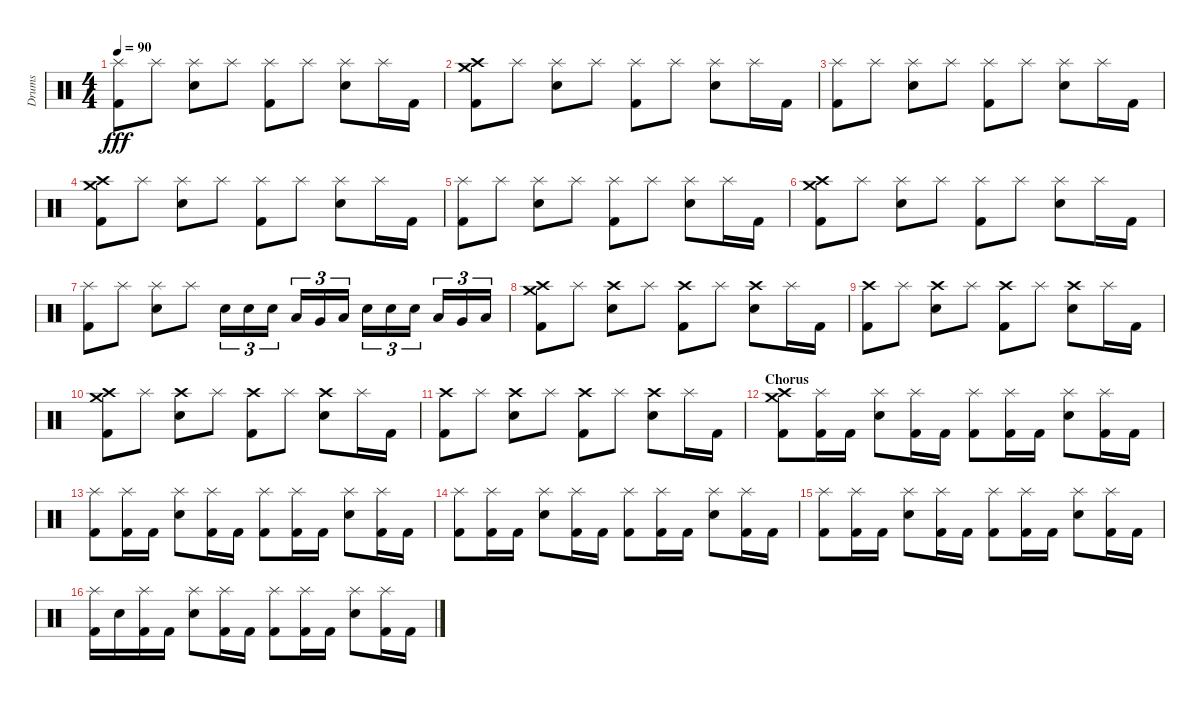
\track ("Drums" "Drums") {instrument percussion}
\staff {score}
\articulation defaults
\ts (4 4)
\tempo 90
\clef neutral
\ks c
("Splash (hit)" "Kick (hit) 2").8{dy fff} "Splash (hit)".8 ("Splash (hit)" "Electric Snare (hit)").8 "Splash (hit)".8 ("Splash (hit)" "Kick (hit) 2").8 "Splash (hit)".8 ("Splash (hit)" "Electric Snare (hit)").8 "Splash (hit)".16 "Kick (hit) 2".16 |
("Crash high (hit)" "Crash medium (hit)" "Kick (hit) 2").8 "Splash (hit)".8 ("Splash (hit)" "Electric Snare (hit)").8 "Splash (hit)".8 ("Splash (hit)" "Kick (hit) 2").8 "Splash (hit)".8 ("Splash (hit)" "Electric Snare (hit)").8 "Splash (hit)".16 "Kick (hit) 2".16 |
("Splash (hit)" "Kick (hit) 2").8 "Splash (hit)".8 ("Splash (hit)" "Electric Snare (hit)").8 "Splash (hit)".8 ("Splash (hit)" "Kick (hit) 2").8 "Splash (hit)".8 ("Splash (hit)" "Electric Snare (hit)").8 "Splash (hit)".16 "Kick (hit) 2".16 |
("Crash high (hit)" "Crash medium (hit)" "Kick (hit) 2").8 "Splash (hit)".8 ("Splash (hit)" "Electric Snare (hit)").8 "Splash (hit)".8 ("Splash (hit)" "Kick (hit) 2").8 "Splash (hit)".8 ("Splash (hit)" "Electric Snare (hit)").8 "Splash (hit)".16 "Kick (hit) 2".16 |
("Splash (hit)" "Kick (hit) 2").8 "Splash (hit)".8 ("Splash (hit)" "Electric Snare (hit)").8 "Splash (hit)".8 ("Splash (hit)" "Kick (hit) 2").8 "Splash (hit)".8 ("Splash (hit)" "Electric Snare (hit)").8 "Splash (hit)".16 "Kick (hit) 2".16 |
("Crash high (hit)" "Crash medium (hit)" "Kick (hit) 2").8 "Splash (hit)".8 ("Splash (hit)" "Electric Snare (hit)").8 "Splash (hit)".8 ("Splash (hit)" "Kick (hit) 2").8 "Splash (hit)".8 ("Splash (hit)" "Electric Snare (hit)").8 "Splash (hit)".16 "Kick (hit) 2".16 |
("Splash (hit)" "Kick (hit) 2").8 "Splash (hit)".8 ("Splash (hit)" "Electric Snare (hit)").8 "Splash (hit)".8 "Electric Snare (hit)".16{tu (3 2)} "Electric Snare (hit)".16{tu (3 2)} "Electric Snare (hit)".16{tu (3 2)} "Low Tom (hit)".16{tu (3 2)} "Very Low Tom (hit)".16{tu (3 2)} "Low Floor Tom (hit)".16{tu (3 2)} "Electric Snare (hit)".16{tu (3 2)} "Electric Snare (hit)".16{tu (3 2)} "Electric Snare (hit)".16{tu (3 2)} "Low Tom (hit)".16{tu (3 2)} "Very Low Tom (hit)".16{tu (3 2)} "Low Floor Tom (hit)".16{tu (3 2)} |
("Crash high (hit)" "Crash medium (hit)" "Kick (hit) 2").8 "Splash (hit)".8 ("Crash high (hit)" "Electric Snare (hit)").8 "Splash (hit)".8 ("Crash high (hit)" "Kick (hit) 2").8 "Splash (hit)".8 ("Crash high (hit)" "Electric Snare (hit)").8 "Splash (hit)".16 "Kick (hit) 2".16 |
("Crash high (hit)" "Kick (hit) 2").8 "Splash (hit)".8 ("Crash high (hit)" "Electric Snare (hit)").8 "Splash (hit)".8 ("Crash high (hit)" "Kick (hit) 2").8 "Splash (hit)".8 ("Crash high (hit)" "Electric Snare (hit)").8 "Splash (hit)".16 "Kick (hit) 2".16 |
("Crash high (hit)" "Crash medium (hit)" "Kick (hit) 2").8 "Splash (hit)".8 ("Crash high (hit)" "Electric Snare (hit)").8 "Splash (hit)".8 ("Crash high (hit)" "Kick (hit) 2").8 "Splash (hit)".8 ("Crash high (hit)" "Electric Snare (hit)").8 "Splash (hit)".16 "Kick (hit) 2".16 |
("Crash high (hit)" "Kick (hit) 2").8 "Splash (hit)".8 ("Crash high (hit)" "Electric Snare (hit)").8 "Splash (hit)".8 ("Crash high (hit)" "Kick (hit) 2").8 "Splash (hit)".8 ("Crash high (hit)" "Electric Snare (hit)").8 "Splash (hit)".16 "Kick (hit) 2".16 |
\section ("" "Chorus")
("Crash high (hit)" "Crash medium (hit)" "Kick (hit) 2").8 ("Splash (hit)" "Kick (hit) 2").16 "Kick (hit) 2".16 ("Splash (hit)" "Electric Snare (hit)").8 ("Splash (hit)" "Kick (hit) 2").16 "Kick (hit) 2".16 ("Splash (hit)" "Kick (hit) 2").8 ("Splash (hit)" "Kick (hit) 2").16 "Kick (hit) 2".16 ("Splash (hit)" "Electric Snare (hit)").8 ("Splash (hit)" "Kick (hit) 2").16 "Kick (hit) 2".16 |
("Splash (hit)" "Kick (hit) 2").8 ("Splash (hit)" "Kick (hit) 2").16 "Kick (hit) 2".16 ("Splash (hit)" "Electric Snare (hit)").8 ("Splash (hit)" "Kick (hit) 2").16 "Kick (hit) 2".16 ("Splash (hit)" "Kick (hit) 2").8 ("Splash (hit)" "Kick (hit) 2").16 "Kick (hit) 2".16 ("Splash (hit)" "Electric Snare (hit)").8 ("Splash (hit)" "Kick (hit) 2").16 "Kick (hit) 2".16 |
("Splash (hit)" "Kick (hit) 2").8 ("Splash (hit)" "Kick (hit) 2").16 "Kick (hit) 2".16 ("Splash (hit)" "Electric Snare (hit)").8 ("Splash (hit)" "Kick (hit) 2").16 "Kick (hit) 2".16 ("Splash (hit)" "Kick (hit) 2").8 ("Splash (hit)" "Kick (hit) 2").16 "Kick (hit) 2".16 ("Splash (hit)" "Electric Snare (hit)").8 ("Splash (hit)" "Kick (hit) 2").16 "Kick (hit) 2".16 |
("Splash (hit)" "Kick (hit) 2").8 ("Splash (hit)" "Kick (hit) 2").16 "Kick (hit) 2".16 ("Splash (hit)" "Electric Snare (hit)").8 ("Splash (hit)" "Kick (hit) 2").16 "Kick (hit) 2".16 ("Splash (hit)" "Kick (hit) 2").8 ("Splash (hit)" "Kick (hit) 2").16 "Kick (hit) 2".16 ("Splash (hit)" "Electric Snare (hit)").8 ("Splash (hit)" "Kick (hit) 2").16 "Kick (hit) 2".16 |
("Splash (hit)" "Kick (hit) 2").16 "Electric Snare (hit)".16 ("Splash (hit)" "Kick (hit) 2").16 "Kick (hit) 2".16 ("Splash (hit)" "Electric Snare (hit)").8 ("Splash (hit)" "Kick (hit) 2").16 "Kick (hit) 2".16 ("Splash (hit)" "Kick (hit) 2").8 ("Splash (hit)" "Kick (hit) 2").16 "Kick (hit) 2".16 ("Splash (hit)" "Electric Snare (hit)").8 ("Splash (hit)" "Kick (hit) 2").16 "Kick (hit) 2".16
